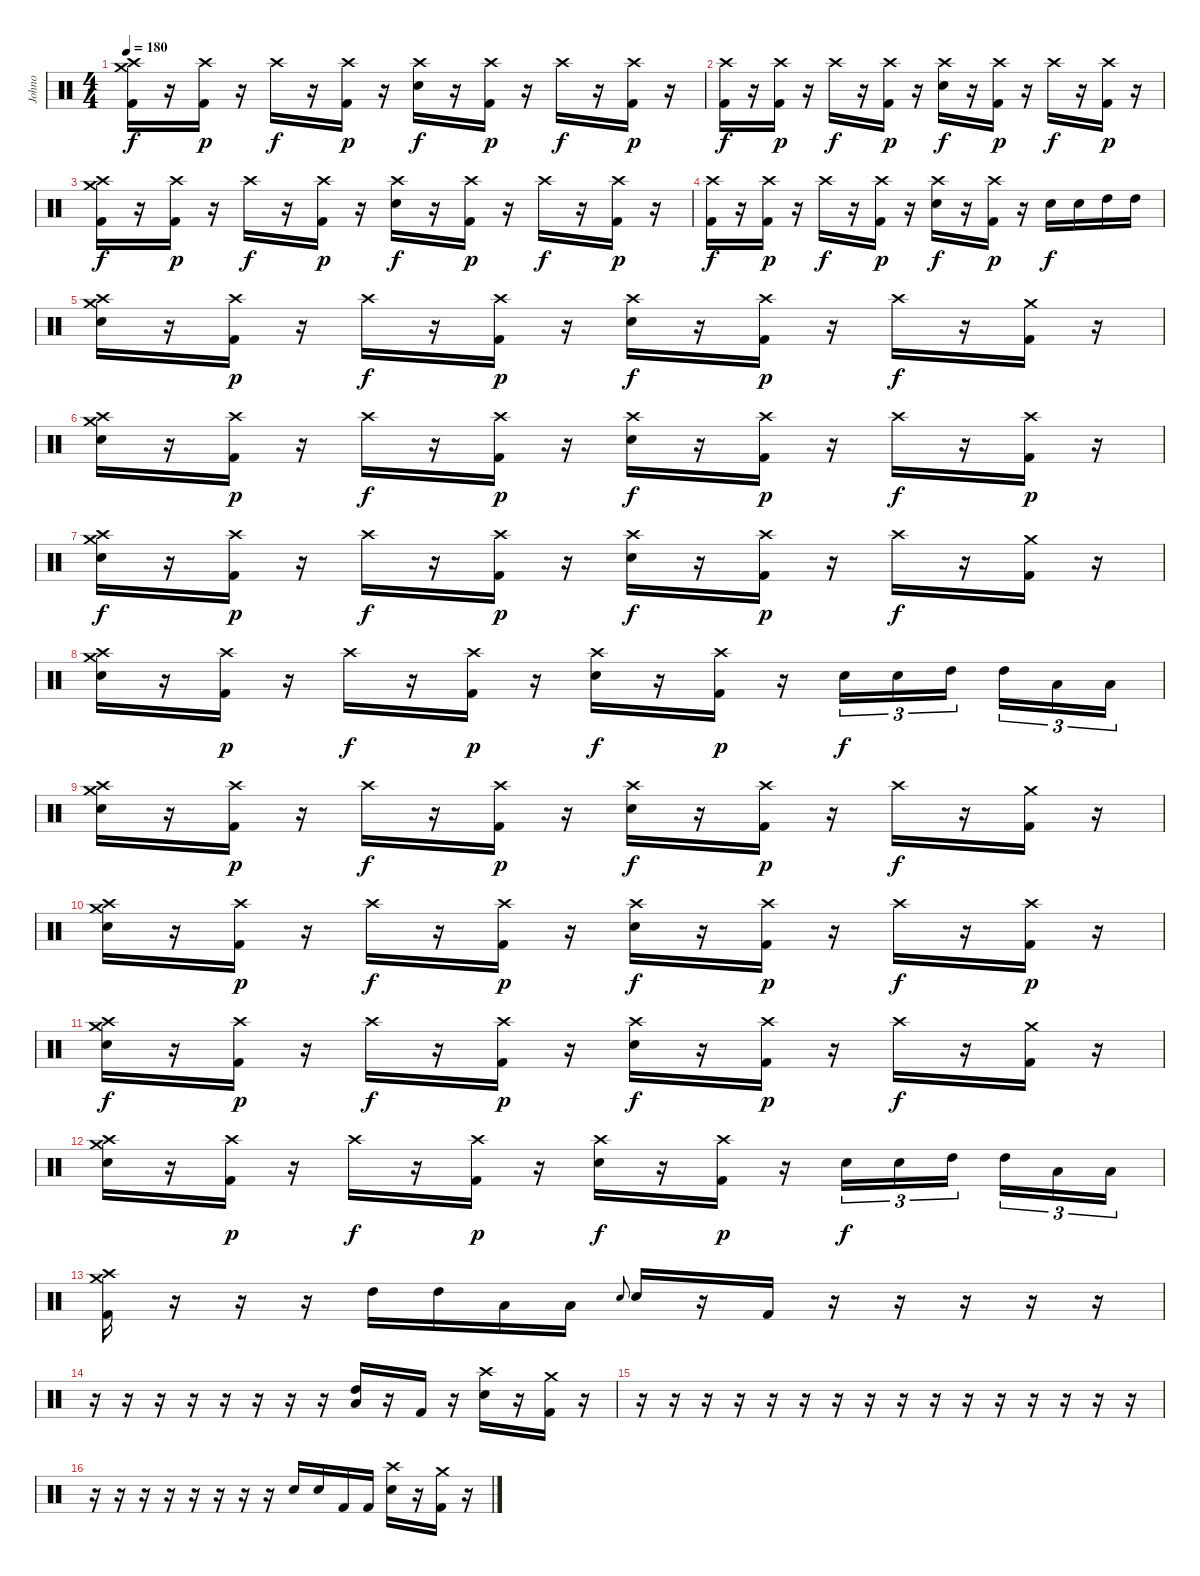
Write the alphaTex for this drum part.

\track (" Johno" " Johno") {instrument percussion}
\staff {score}
\articulation defaults
\ts (4 4)
\tempo 180
\clef neutral
\ks c
("Crash medium (hit)" "Crash high (hit)" "Kick (hit) 2").16{dy f} r.16 ("Crash high (hit)" "Kick (hit) 2").16{dy p} r.16 "Crash high (hit)".16{dy f} r.16 ("Crash high (hit)" "Kick (hit) 2").16{dy p} r.16 ("Crash high (hit)" "Electric Snare (hit)").16{dy f} r.16 ("Crash high (hit)" "Kick (hit) 2").16{dy p} r.16 "Crash high (hit)".16{dy f} r.16 ("Crash high (hit)" "Kick (hit) 2").16{dy p} r.16 |
("Crash high (hit)" "Kick (hit) 2").16{dy f} r.16 ("Crash high (hit)" "Kick (hit) 2").16{dy p} r.16 "Crash high (hit)".16{dy f} r.16 ("Crash high (hit)" "Kick (hit) 2").16{dy p} r.16 ("Crash high (hit)" "Electric Snare (hit)").16{dy f} r.16 ("Crash high (hit)" "Kick (hit) 2").16{dy p} r.16 "Crash high (hit)".16{dy f} r.16 ("Crash high (hit)" "Kick (hit) 2").16{dy p} r.16 |
("Crash medium (hit)" "Crash high (hit)" "Kick (hit) 2").16{dy f} r.16 ("Crash high (hit)" "Kick (hit) 2").16{dy p} r.16 "Crash high (hit)".16{dy f} r.16 ("Crash high (hit)" "Kick (hit) 2").16{dy p} r.16 ("Crash high (hit)" "Electric Snare (hit)").16{dy f} r.16 ("Crash high (hit)" "Kick (hit) 2").16{dy p} r.16 "Crash high (hit)".16{dy f} r.16 ("Crash high (hit)" "Kick (hit) 2").16{dy p} r.16 |
("Crash high (hit)" "Kick (hit) 2").16{dy f} r.16 ("Crash high (hit)" "Kick (hit) 2").16{dy p} r.16 "Crash high (hit)".16{dy f} r.16 ("Crash high (hit)" "Kick (hit) 2").16{dy p} r.16 ("Crash high (hit)" "Electric Snare (hit)").16{dy f} r.16 ("Crash high (hit)" "Kick (hit) 2").16{dy p} r.16 "Electric Snare (hit)".16{dy f} "Electric Snare (hit)".16 "High Tom (hit)".16 "High Tom (hit)".16 |
("Crash medium (hit)" "Crash high (hit)" "Electric Snare (hit)").16 r.16 ("Crash high (hit)" "Kick (hit) 2").16{dy p} r.16 "Crash high (hit)".16{dy f} r.16 ("Crash high (hit)" "Kick (hit) 2").16{dy p} r.16 ("Crash high (hit)" "Electric Snare (hit)").16{dy f} r.16 ("Crash high (hit)" "Kick (hit) 2").16{dy p} r.16 "Crash high (hit)".16{dy f} r.16 ("Crash medium (hit)" "Kick (hit) 2").16 r.16 |
("Crash medium (hit)" "Crash high (hit)" "Electric Snare (hit)").16 r.16 ("Crash high (hit)" "Kick (hit) 2").16{dy p} r.16 "Crash high (hit)".16{dy f} r.16 ("Crash high (hit)" "Kick (hit) 2").16{dy p} r.16 ("Crash high (hit)" "Electric Snare (hit)").16{dy f} r.16 ("Crash high (hit)" "Kick (hit) 2").16{dy p} r.16 "Crash high (hit)".16{dy f} r.16 ("Crash high (hit)" "Kick (hit) 2").16{dy p} r.16 |
("Crash medium (hit)" "Crash high (hit)" "Electric Snare (hit)").16{dy f} r.16 ("Crash high (hit)" "Kick (hit) 2").16{dy p} r.16 "Crash high (hit)".16{dy f} r.16 ("Crash high (hit)" "Kick (hit) 2").16{dy p} r.16 ("Crash high (hit)" "Electric Snare (hit)").16{dy f} r.16 ("Crash high (hit)" "Kick (hit) 2").16{dy p} r.16 "Crash high (hit)".16{dy f} r.16 ("Crash medium (hit)" "Kick (hit) 2").16 r.16 |
("Crash medium (hit)" "Crash high (hit)" "Electric Snare (hit)").16 r.16 ("Crash high (hit)" "Kick (hit) 2").16{dy p} r.16 "Crash high (hit)".16{dy f} r.16 ("Crash high (hit)" "Kick (hit) 2").16{dy p} r.16 ("Crash high (hit)" "Electric Snare (hit)").16{dy f} r.16 ("Crash high (hit)" "Kick (hit) 2").16{dy p} r.16 "Electric Snare (hit)".16{tu (3 2) dy f} "Electric Snare (hit)".16{tu (3 2)} "High Tom (hit)".16{tu (3 2) beam splitsecondary} "High Tom (hit)".16{tu (3 2)} "Low Floor Tom (hit)".16{tu (3 2)} "Low Floor Tom (hit)".16{tu (3 2)} |
("Crash medium (hit)" "Crash high (hit)" "Electric Snare (hit)").16 r.16 ("Crash high (hit)" "Kick (hit) 2").16{dy p} r.16 "Crash high (hit)".16{dy f} r.16 ("Crash high (hit)" "Kick (hit) 2").16{dy p} r.16 ("Crash high (hit)" "Electric Snare (hit)").16{dy f} r.16 ("Crash high (hit)" "Kick (hit) 2").16{dy p} r.16 "Crash high (hit)".16{dy f} r.16 ("Crash medium (hit)" "Kick (hit) 2").16 r.16 |
("Crash medium (hit)" "Crash high (hit)" "Electric Snare (hit)").16 r.16 ("Crash high (hit)" "Kick (hit) 2").16{dy p} r.16 "Crash high (hit)".16{dy f} r.16 ("Crash high (hit)" "Kick (hit) 2").16{dy p} r.16 ("Crash high (hit)" "Electric Snare (hit)").16{dy f} r.16 ("Crash high (hit)" "Kick (hit) 2").16{dy p} r.16 "Crash high (hit)".16{dy f} r.16 ("Crash high (hit)" "Kick (hit) 2").16{dy p} r.16 |
("Crash medium (hit)" "Crash high (hit)" "Electric Snare (hit)").16{dy f} r.16 ("Crash high (hit)" "Kick (hit) 2").16{dy p} r.16 "Crash high (hit)".16{dy f} r.16 ("Crash high (hit)" "Kick (hit) 2").16{dy p} r.16 ("Crash high (hit)" "Electric Snare (hit)").16{dy f} r.16 ("Crash high (hit)" "Kick (hit) 2").16{dy p} r.16 "Crash high (hit)".16{dy f} r.16 ("Crash medium (hit)" "Kick (hit) 2").16 r.16 |
("Crash medium (hit)" "Crash high (hit)" "Electric Snare (hit)").16 r.16 ("Crash high (hit)" "Kick (hit) 2").16{dy p} r.16 "Crash high (hit)".16{dy f} r.16 ("Crash high (hit)" "Kick (hit) 2").16{dy p} r.16 ("Crash high (hit)" "Electric Snare (hit)").16{dy f} r.16 ("Crash high (hit)" "Kick (hit) 2").16{dy p} r.16 "Electric Snare (hit)".16{tu (3 2) dy f} "Electric Snare (hit)".16{tu (3 2)} "High Tom (hit)".16{tu (3 2) beam splitsecondary} "High Tom (hit)".16{tu (3 2)} "Low Floor Tom (hit)".16{tu (3 2)} "Low Floor Tom (hit)".16{tu (3 2)} |
("Crash medium (hit)" "Crash high (hit)" "Kick (hit) 2").16 r.16 r.16 r.16 "High Tom (hit)".16 "High Tom (hit)".16 "Low Floor Tom (hit)".16 "Low Floor Tom (hit)".16 "Electric Snare (hit)".8{gr onbeat} "Electric Snare (hit)".16 r.16 "Kick (hit) 2".16 r.16 r.16 r.16 r.16 r.16 |
r.16 r.16 r.16 r.16 r.16 r.16 r.16 r.16 ("Low Floor Tom (hit)" "High Tom (hit)").16 r.16 "Kick (hit) 2".16 r.16 ("Crash high (hit)" "Electric Snare (hit)").16 r.16 ("Crash medium (hit)" "Kick (hit) 2").16 r.16 |
r.16 r.16 r.16 r.16 r.16 r.16 r.16 r.16 r.16 r.16 r.16 r.16 r.16 r.16 r.16 r.16 |
r.16 r.16 r.16 r.16 r.16 r.16 r.16 r.16 "Electric Snare (hit)".16 "Electric Snare (hit)".16 "Kick (hit) 2".16 "Kick (hit) 2".16 ("Crash high (hit)" "Electric Snare (hit)").16 r.16 ("Crash medium (hit)" "Kick (hit) 2").16 r.16
